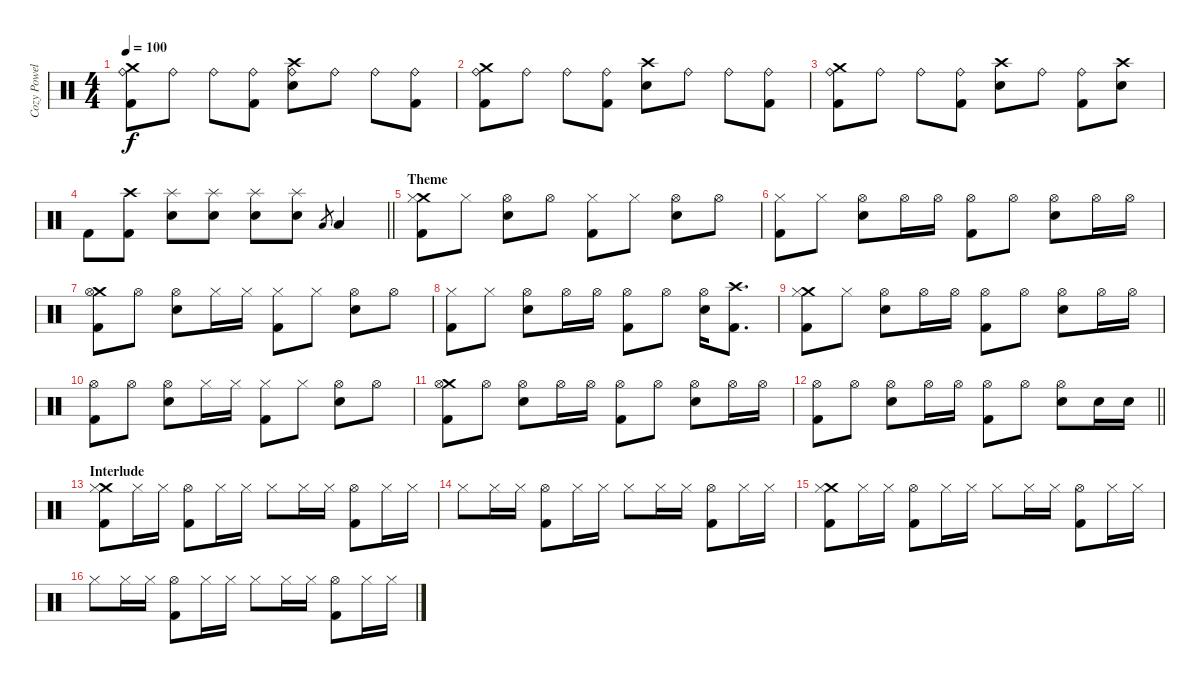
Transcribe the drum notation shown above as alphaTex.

\track ("Cozy Powell " "Cozy Powel") {instrument percussion}
\staff {score}
\articulation defaults
\ts (4 4)
\tempo 100
\clef neutral
\ks c
("Crash medium (hit)" "Ride (bell)" "Kick (hit) 2").8{dy f} "Ride (bell)".8 "Ride (bell)".8 ("Ride (bell)" "Kick (hit) 2").8 ("Crash high (hit)" "Ride (bell)" "Snare (hit) 2").8 "Ride (bell)".8 "Ride (bell)".8 ("Ride (bell)" "Kick (hit) 2").8 |
("Crash medium (hit)" "Ride (bell)" "Kick (hit) 2").8 "Ride (bell)".8 "Ride (bell)".8 ("Ride (bell)" "Kick (hit) 2").8 ("Crash high (hit)" "Snare (hit) 2").8 "Ride (bell)".8 "Ride (bell)".8 ("Ride (bell)" "Kick (hit) 2").8 |
("Crash medium (hit)" "Ride (bell)" "Kick (hit) 2").8 "Ride (bell)".8 "Ride (bell)".8 ("Ride (bell)" "Kick (hit) 2").8 ("Crash high (hit)" "Snare (hit) 2").8 "Ride (bell)".8 ("Ride (bell)" "Kick (hit) 2").8 ("Crash high (hit)" "Snare (hit) 2").8 |
\barLineRight lightlight "Kick (hit) 2".8
("Crash high (hit)" "Kick (hit) 2").8 ("Splash (hit)" "Snare (hit) 2").8 ("Splash (hit)" "Snare (hit) 2").8 ("Splash (hit)" "Snare (hit) 2").8 ("Splash (hit)" "Snare (hit) 2").8 "Low Tom (hit)".8{gr} "Low Tom (hit)".4 |
\section ("" "Theme")
("Crash medium (hit)" "Hi-Hat (closed)" "Kick (hit) 2").8 "Hi-Hat (closed)".8 ("Hi-Hat (open)" "Snare (hit) 2").8 "Hi-Hat (open)".8 ("Hi-Hat (closed)" "Kick (hit) 2").8 "Hi-Hat (closed)".8 ("Hi-Hat (open)" "Snare (hit) 2").8 "Hi-Hat (open)".8 |
("Hi-Hat (closed)" "Kick (hit) 2").8 "Hi-Hat (closed)".8 ("Hi-Hat (open)" "Snare (hit) 2").8 "Hi-Hat (open)".16 "Hi-Hat (open)".16 ("Hi-Hat (open)" "Kick (hit) 2").8 "Hi-Hat (open)".8 ("Hi-Hat (open)" "Snare (hit) 2").8 "Hi-Hat (open)".16 "Hi-Hat (open)".16 |
("Crash medium (hit)" "Hi-Hat (open)" "Kick (hit) 2").8 "Hi-Hat (open)".8 ("Hi-Hat (open)" "Snare (hit) 2").8 "Hi-Hat (closed)".16 "Hi-Hat (closed)".16 ("Hi-Hat (closed)" "Kick (hit) 2").8 "Hi-Hat (closed)".8 ("Hi-Hat (open)" "Snare (hit) 2").8 "Hi-Hat (open)".8 |
("Hi-Hat (closed)" "Kick (hit) 2").8 "Hi-Hat (closed)".8 ("Hi-Hat (open)" "Snare (hit) 2").8 "Hi-Hat (open)".16 "Hi-Hat (open)".16 ("Hi-Hat (open)" "Kick (hit) 2").8 "Hi-Hat (open)".8 ("Hi-Hat (open)" "Snare (hit) 2").16 ("Crash high (hit)" "Kick (hit) 2").8{d} |
("Crash medium (hit)" "Hi-Hat (closed)" "Kick (hit) 2").8 "Hi-Hat (closed)".8 ("Hi-Hat (open)" "Snare (hit) 2").8 "Hi-Hat (open)".16 "Hi-Hat (open)".16 ("Hi-Hat (open)" "Kick (hit) 2").8 "Hi-Hat (open)".8 ("Hi-Hat (open)" "Snare (hit) 2").8 "Hi-Hat (open)".16 "Hi-Hat (open)".16 |
("Hi-Hat (open)" "Kick (hit) 2").8 "Hi-Hat (open)".8 ("Hi-Hat (open)" "Snare (hit) 2").8 "Hi-Hat (closed)".16 "Hi-Hat (closed)".16 ("Hi-Hat (closed)" "Kick (hit) 2").8 "Hi-Hat (closed)".8 ("Hi-Hat (open)" "Snare (hit) 2").8 "Hi-Hat (open)".8 |
("Crash medium (hit)" "Hi-Hat (open)" "Kick (hit) 2").8 "Hi-Hat (open)".8 ("Hi-Hat (open)" "Snare (hit) 2").8 "Hi-Hat (open)".16 "Hi-Hat (open)".16 ("Hi-Hat (open)" "Kick (hit) 2").8 "Hi-Hat (open)".8 ("Hi-Hat (open)" "Snare (hit) 2").8 "Hi-Hat (open)".16 "Hi-Hat (open)".16 |
\barLineRight lightlight
("Hi-Hat (open)" "Kick (hit) 2").8 "Hi-Hat (open)".8 ("Hi-Hat (open)" "Snare (hit) 2").8 "Hi-Hat (open)".16 "Hi-Hat (open)".16 ("Hi-Hat (open)" "Kick (hit) 2").8 "Hi-Hat (open)".8 ("Hi-Hat (open)" "Snare (hit) 2").8 "Snare (hit) 2".16 "Snare (hit) 2".16 |
\section ("" "Interlude")
("Crash medium (hit)" "Hi-Hat (closed)" "Kick (hit) 2").8 "Hi-Hat (closed)".16 "Hi-Hat (closed)".16 ("Hi-Hat (open)" "Kick (hit) 2").8 "Hi-Hat (closed)".16 "Hi-Hat (closed)".16 "Hi-Hat (closed)".8 "Hi-Hat (closed)".16 "Hi-Hat (closed)".16 ("Hi-Hat (open)" "Kick (hit) 2").8 "Hi-Hat (closed)".16 "Hi-Hat (closed)".16 |
"Hi-Hat (closed)".8 "Hi-Hat (closed)".16 "Hi-Hat (closed)".16 ("Hi-Hat (open)" "Kick (hit) 2").8 "Hi-Hat (closed)".16 "Hi-Hat (closed)".16 "Hi-Hat (closed)".8 "Hi-Hat (closed)".16 "Hi-Hat (closed)".16 ("Hi-Hat (open)" "Kick (hit) 2").8 "Hi-Hat (closed)".16 "Hi-Hat (closed)".16 |
("Crash medium (hit)" "Hi-Hat (closed)" "Kick (hit) 2").8 "Hi-Hat (closed)".16 "Hi-Hat (closed)".16 ("Hi-Hat (open)" "Kick (hit) 2").8 "Hi-Hat (closed)".16 "Hi-Hat (closed)".16 "Hi-Hat (closed)".8 "Hi-Hat (closed)".16 "Hi-Hat (closed)".16 ("Hi-Hat (open)" "Kick (hit) 2").8 "Hi-Hat (closed)".16 "Hi-Hat (closed)".16 |
"Hi-Hat (closed)".8 "Hi-Hat (closed)".16 "Hi-Hat (closed)".16 ("Hi-Hat (open)" "Kick (hit) 2").8 "Hi-Hat (closed)".16 "Hi-Hat (closed)".16 "Hi-Hat (closed)".8 "Hi-Hat (closed)".16 "Hi-Hat (closed)".16 ("Hi-Hat (open)" "Kick (hit) 2").8 "Hi-Hat (closed)".16 "Hi-Hat (closed)".16
